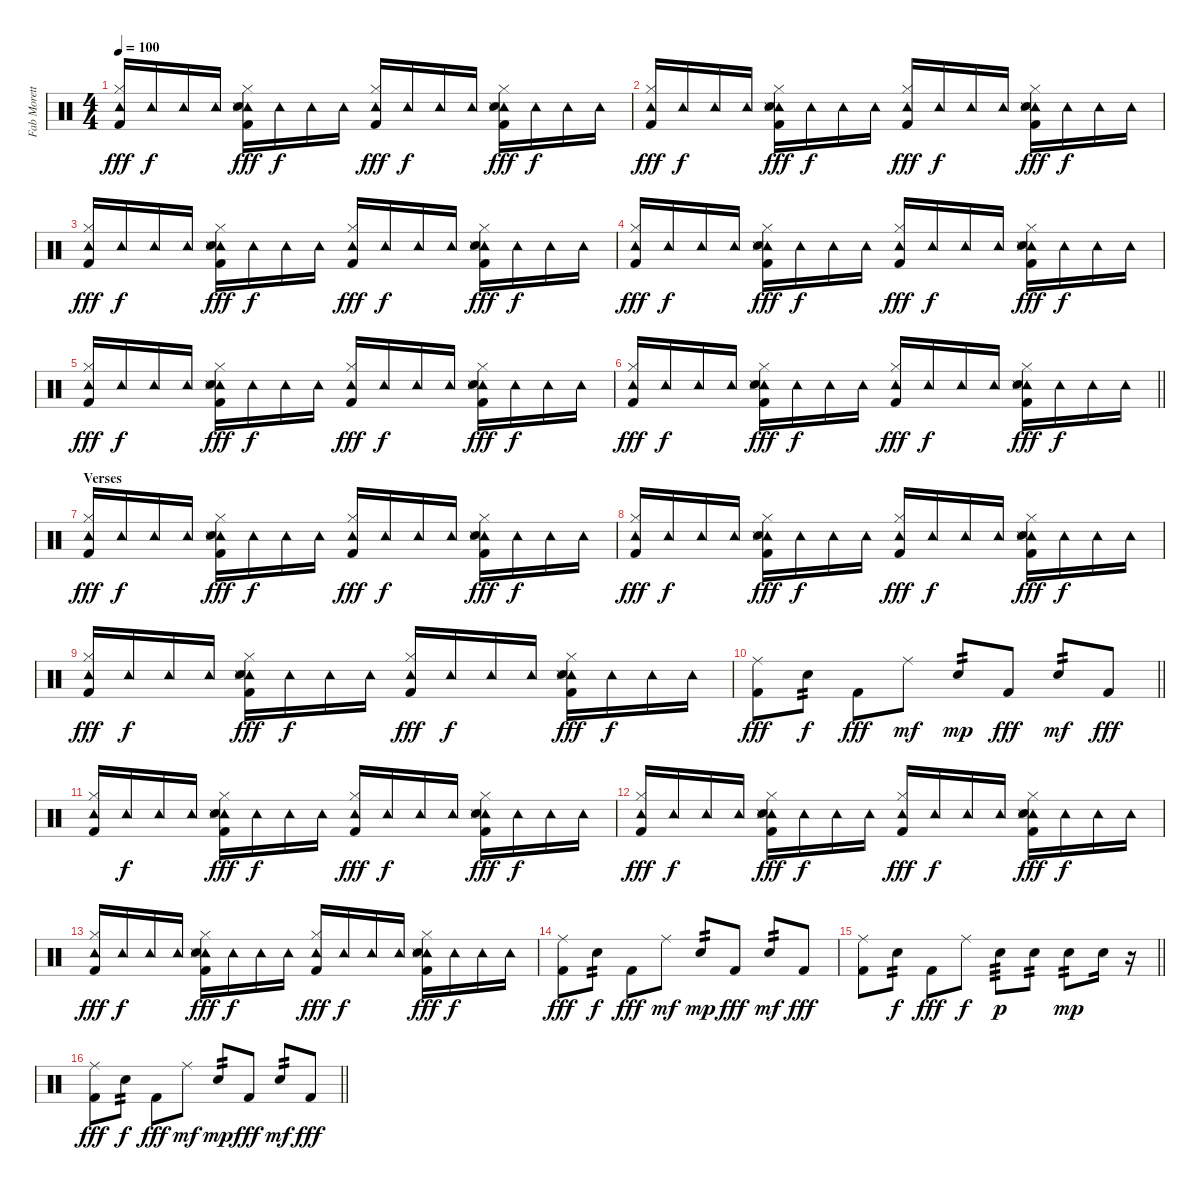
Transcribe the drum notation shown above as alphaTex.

\track ("Fab Moretti - Drums" "Fab Morett") {instrument percussion}
\staff {score}
\articulation defaults
\ts (4 4)
\tempo 100
\clef neutral
\ks c
("Tambourine (hit)" "Hi-Hat (closed)" "Kick (hit) 2").16{dy fff} "Tambourine (hit)".16{dy f} "Tambourine (hit)".16 "Tambourine (hit)".16 ("Tambourine (hit)" "Snare (side stick) 3" "Hi-Hat (closed)" "Electric Snare (hit)" "Kick (hit) 2").16{dy fff} "Tambourine (hit)".16{dy f} "Tambourine (hit)".16 "Tambourine (hit)".16 ("Tambourine (hit)" "Hi-Hat (closed)" "Kick (hit) 2").16{dy fff} "Tambourine (hit)".16{dy f} "Tambourine (hit)".16 "Tambourine (hit)".16 ("Tambourine (hit)" "Snare (side stick) 3" "Hi-Hat (closed)" "Electric Snare (hit)" "Kick (hit) 2").16{dy fff} "Tambourine (hit)".16{dy f} "Tambourine (hit)".16 "Tambourine (hit)".16 |
("Tambourine (hit)" "Hi-Hat (closed)" "Kick (hit) 2").16{dy fff} "Tambourine (hit)".16{dy f} "Tambourine (hit)".16 "Tambourine (hit)".16 ("Tambourine (hit)" "Snare (side stick) 3" "Hi-Hat (closed)" "Electric Snare (hit)" "Kick (hit) 2").16{dy fff} "Tambourine (hit)".16{dy f} "Tambourine (hit)".16 "Tambourine (hit)".16 ("Tambourine (hit)" "Hi-Hat (closed)" "Kick (hit) 2").16{dy fff} "Tambourine (hit)".16{dy f} "Tambourine (hit)".16 "Tambourine (hit)".16 ("Tambourine (hit)" "Snare (side stick) 3" "Hi-Hat (closed)" "Electric Snare (hit)" "Kick (hit) 2").16{dy fff} "Tambourine (hit)".16{dy f} "Tambourine (hit)".16 "Tambourine (hit)".16 |
("Tambourine (hit)" "Hi-Hat (closed)" "Kick (hit) 2").16{dy fff} "Tambourine (hit)".16{dy f} "Tambourine (hit)".16 "Tambourine (hit)".16 ("Tambourine (hit)" "Snare (side stick) 3" "Hi-Hat (closed)" "Electric Snare (hit)" "Kick (hit) 2").16{dy fff} "Tambourine (hit)".16{dy f} "Tambourine (hit)".16 "Tambourine (hit)".16 ("Tambourine (hit)" "Hi-Hat (closed)" "Kick (hit) 2").16{dy fff} "Tambourine (hit)".16{dy f} "Tambourine (hit)".16 "Tambourine (hit)".16 ("Tambourine (hit)" "Snare (side stick) 3" "Hi-Hat (closed)" "Electric Snare (hit)" "Kick (hit) 2").16{dy fff} "Tambourine (hit)".16{dy f} "Tambourine (hit)".16 "Tambourine (hit)".16 |
("Tambourine (hit)" "Hi-Hat (closed)" "Kick (hit) 2").16{dy fff} "Tambourine (hit)".16{dy f} "Tambourine (hit)".16 "Tambourine (hit)".16 ("Tambourine (hit)" "Snare (side stick) 3" "Hi-Hat (closed)" "Electric Snare (hit)" "Kick (hit) 2").16{dy fff} "Tambourine (hit)".16{dy f} "Tambourine (hit)".16 "Tambourine (hit)".16 ("Tambourine (hit)" "Hi-Hat (closed)" "Kick (hit) 2").16{dy fff} "Tambourine (hit)".16{dy f} "Tambourine (hit)".16 "Tambourine (hit)".16 ("Tambourine (hit)" "Snare (side stick) 3" "Hi-Hat (closed)" "Electric Snare (hit)" "Kick (hit) 2").16{dy fff} "Tambourine (hit)".16{dy f} "Tambourine (hit)".16 "Tambourine (hit)".16 |
("Tambourine (hit)" "Hi-Hat (closed)" "Kick (hit) 2").16{dy fff} "Tambourine (hit)".16{dy f} "Tambourine (hit)".16 "Tambourine (hit)".16 ("Tambourine (hit)" "Snare (side stick) 3" "Hi-Hat (closed)" "Electric Snare (hit)" "Kick (hit) 2").16{dy fff} "Tambourine (hit)".16{dy f} "Tambourine (hit)".16 "Tambourine (hit)".16 ("Tambourine (hit)" "Hi-Hat (closed)" "Kick (hit) 2").16{dy fff} "Tambourine (hit)".16{dy f} "Tambourine (hit)".16 "Tambourine (hit)".16 ("Tambourine (hit)" "Snare (side stick) 3" "Hi-Hat (closed)" "Electric Snare (hit)" "Kick (hit) 2").16{dy fff} "Tambourine (hit)".16{dy f} "Tambourine (hit)".16 "Tambourine (hit)".16 |
\barLineRight lightlight
("Tambourine (hit)" "Hi-Hat (closed)" "Kick (hit) 2").16{dy fff} "Tambourine (hit)".16{dy f} "Tambourine (hit)".16 "Tambourine (hit)".16 ("Tambourine (hit)" "Snare (side stick) 3" "Hi-Hat (closed)" "Electric Snare (hit)" "Kick (hit) 2").16{dy fff} "Tambourine (hit)".16{dy f} "Tambourine (hit)".16 "Tambourine (hit)".16 ("Tambourine (hit)" "Hi-Hat (closed)" "Kick (hit) 2").16{dy fff} "Tambourine (hit)".16{dy f} "Tambourine (hit)".16 "Tambourine (hit)".16 ("Tambourine (hit)" "Snare (side stick) 3" "Hi-Hat (closed)" "Electric Snare (hit)" "Kick (hit) 2").16{dy fff} "Tambourine (hit)".16{dy f} "Tambourine (hit)".16 "Tambourine (hit)".16 |
\section ("" "Verses")
("Tambourine (hit)" "Hi-Hat (closed)" "Kick (hit) 2").16{dy fff} "Tambourine (hit)".16{dy f} "Tambourine (hit)".16 "Tambourine (hit)".16 ("Tambourine (hit)" "Snare (side stick) 3" "Hi-Hat (closed)" "Electric Snare (hit)" "Kick (hit) 2").16{dy fff} "Tambourine (hit)".16{dy f} "Tambourine (hit)".16 "Tambourine (hit)".16 ("Tambourine (hit)" "Hi-Hat (closed)" "Kick (hit) 2").16{dy fff} "Tambourine (hit)".16{dy f} "Tambourine (hit)".16 "Tambourine (hit)".16 ("Tambourine (hit)" "Snare (side stick) 3" "Hi-Hat (closed)" "Electric Snare (hit)" "Kick (hit) 2").16{dy fff} "Tambourine (hit)".16{dy f} "Tambourine (hit)".16 "Tambourine (hit)".16 |
("Tambourine (hit)" "Hi-Hat (closed)" "Kick (hit) 2").16{dy fff} "Tambourine (hit)".16{dy f} "Tambourine (hit)".16 "Tambourine (hit)".16 ("Tambourine (hit)" "Snare (side stick) 3" "Hi-Hat (closed)" "Electric Snare (hit)" "Kick (hit) 2").16{dy fff} "Tambourine (hit)".16{dy f} "Tambourine (hit)".16 "Tambourine (hit)".16 ("Tambourine (hit)" "Hi-Hat (closed)" "Kick (hit) 2").16{dy fff} "Tambourine (hit)".16{dy f} "Tambourine (hit)".16 "Tambourine (hit)".16 ("Tambourine (hit)" "Snare (side stick) 3" "Hi-Hat (closed)" "Electric Snare (hit)" "Kick (hit) 2").16{dy fff} "Tambourine (hit)".16{dy f} "Tambourine (hit)".16 "Tambourine (hit)".16 |
("Tambourine (hit)" "Hi-Hat (closed)" "Kick (hit) 2").16{dy fff} "Tambourine (hit)".16{dy f} "Tambourine (hit)".16 "Tambourine (hit)".16 ("Tambourine (hit)" "Snare (side stick) 3" "Hi-Hat (closed)" "Electric Snare (hit)" "Kick (hit) 2").16{dy fff} "Tambourine (hit)".16{dy f} "Tambourine (hit)".16 "Tambourine (hit)".16 ("Tambourine (hit)" "Hi-Hat (closed)" "Kick (hit) 2").16{dy fff} "Tambourine (hit)".16{dy f} "Tambourine (hit)".16 "Tambourine (hit)".16 ("Tambourine (hit)" "Snare (side stick) 3" "Hi-Hat (closed)" "Electric Snare (hit)" "Kick (hit) 2").16{dy fff} "Tambourine (hit)".16{dy f} "Tambourine (hit)".16 "Tambourine (hit)".16 |
\barLineRight lightlight
("Ride (middle)" "Kick (hit) 2").8{dy fff} "Electric Snare (hit)".8{tp 2 dy f} "Kick (hit) 2".8{dy fff} "Ride (middle)".8{dy mf} "Electric Snare (hit)".8{tp 2 dy mp} "Kick (hit) 2".8{dy fff} "Electric Snare (hit)".8{tp 2 dy mf} "Kick (hit) 2".8{dy fff} |
("Tambourine (hit)" "Hi-Hat (closed)" "Kick (hit) 2").16 "Tambourine (hit)".16{dy f} "Tambourine (hit)".16 "Tambourine (hit)".16 ("Tambourine (hit)" "Snare (side stick) 3" "Hi-Hat (closed)" "Electric Snare (hit)" "Kick (hit) 2").16{dy fff} "Tambourine (hit)".16{dy f} "Tambourine (hit)".16 "Tambourine (hit)".16 ("Tambourine (hit)" "Hi-Hat (closed)" "Kick (hit) 2").16{dy fff} "Tambourine (hit)".16{dy f} "Tambourine (hit)".16 "Tambourine (hit)".16 ("Tambourine (hit)" "Snare (side stick) 3" "Hi-Hat (closed)" "Electric Snare (hit)" "Kick (hit) 2").16{dy fff} "Tambourine (hit)".16{dy f} "Tambourine (hit)".16 "Tambourine (hit)".16 |
("Tambourine (hit)" "Hi-Hat (closed)" "Kick (hit) 2").16{dy fff} "Tambourine (hit)".16{dy f} "Tambourine (hit)".16 "Tambourine (hit)".16 ("Tambourine (hit)" "Snare (side stick) 3" "Hi-Hat (closed)" "Electric Snare (hit)" "Kick (hit) 2").16{dy fff} "Tambourine (hit)".16{dy f} "Tambourine (hit)".16 "Tambourine (hit)".16 ("Tambourine (hit)" "Hi-Hat (closed)" "Kick (hit) 2").16{dy fff} "Tambourine (hit)".16{dy f} "Tambourine (hit)".16 "Tambourine (hit)".16 ("Tambourine (hit)" "Snare (side stick) 3" "Hi-Hat (closed)" "Electric Snare (hit)" "Kick (hit) 2").16{dy fff} "Tambourine (hit)".16{dy f} "Tambourine (hit)".16 "Tambourine (hit)".16 |
("Tambourine (hit)" "Hi-Hat (closed)" "Kick (hit) 2").16{dy fff} "Tambourine (hit)".16{dy f} "Tambourine (hit)".16 "Tambourine (hit)".16 ("Tambourine (hit)" "Snare (side stick) 3" "Hi-Hat (closed)" "Electric Snare (hit)" "Kick (hit) 2").16{dy fff} "Tambourine (hit)".16{dy f} "Tambourine (hit)".16 "Tambourine (hit)".16 ("Tambourine (hit)" "Hi-Hat (closed)" "Kick (hit) 2").16{dy fff} "Tambourine (hit)".16{dy f} "Tambourine (hit)".16 "Tambourine (hit)".16 ("Tambourine (hit)" "Snare (side stick) 3" "Hi-Hat (closed)" "Electric Snare (hit)" "Kick (hit) 2").16{dy fff} "Tambourine (hit)".16{dy f} "Tambourine (hit)".16 "Tambourine (hit)".16 |
("Ride (middle)" "Kick (hit) 2").8{dy fff} "Electric Snare (hit)".8{tp 2 dy f} "Kick (hit) 2".8{dy fff} "Ride (middle)".8{dy mf} "Electric Snare (hit)".8{tp 2 dy mp} "Kick (hit) 2".8{dy fff} "Electric Snare (hit)".8{tp 2 dy mf} "Kick (hit) 2".8{dy fff} |
\barLineRight lightlight
("Ride (middle)" "Kick (hit) 2").8 "Electric Snare (hit)".8{tp 2 dy f} "Kick (hit) 2".8{dy fff} "Ride (middle)".8{dy f} "Electric Snare (hit)".8{tp 3 dy p} "Electric Snare (hit)".8{tp 2} "Electric Snare (hit)".8{tp 2 dy mp} "Electric Snare (hit)".16 r.16 |
\barLineRight lightlight
("Ride (middle)" "Kick (hit) 2").8{dy fff} "Electric Snare (hit)".8{tp 2 dy f} "Kick (hit) 2".8{dy fff} "Ride (middle)".8{dy mf} "Electric Snare (hit)".8{tp 2 dy mp} "Kick (hit) 2".8{dy fff} "Electric Snare (hit)".8{tp 2 dy mf} "Kick (hit) 2".8{dy fff}
